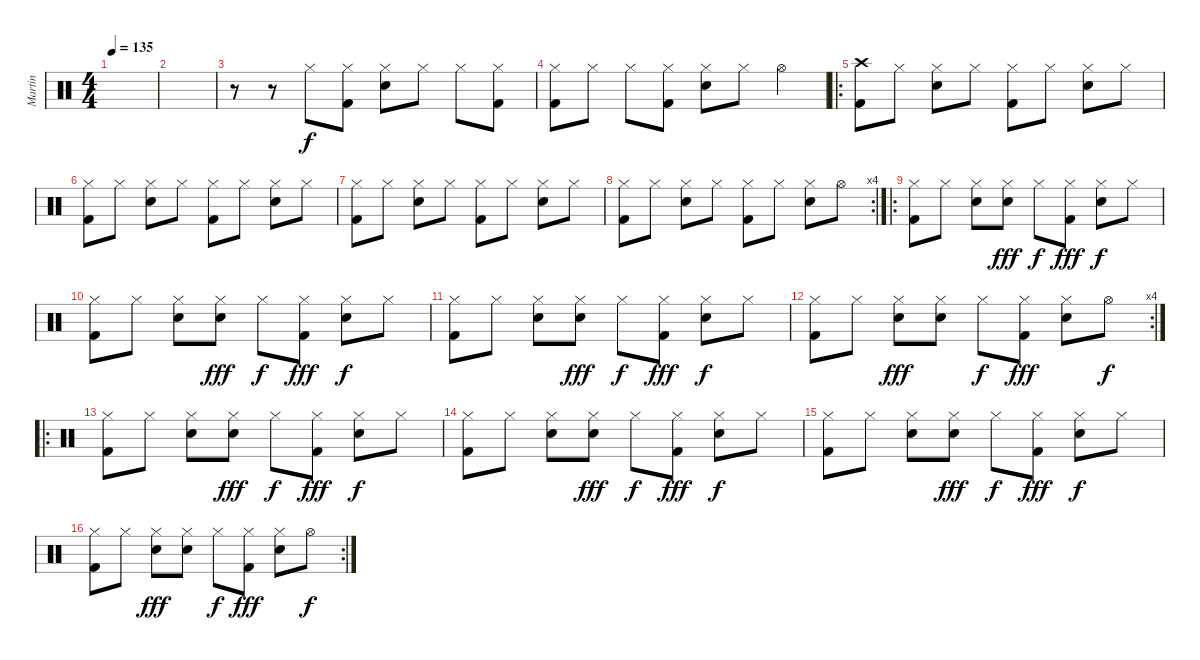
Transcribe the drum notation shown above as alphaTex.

\track ("Martin" "Martin") {instrument percussion}
\staff {score}
\articulation defaults
\ts (4 4)
\tempo 135
\clef neutral
\ks c
|
|
r.8 r.8 "Hi-Hat (closed)".8 ("Hi-Hat (closed)" "Kick (hit) 2").8 ("Hi-Hat (closed)" "Electric Snare (hit)").8 "Hi-Hat (closed)".8 "Hi-Hat (closed)".8 ("Hi-Hat (closed)" "Kick (hit) 2").8 |
("Hi-Hat (closed)" "Kick (hit) 2").8 "Hi-Hat (closed)".8 "Hi-Hat (closed)".8 ("Hi-Hat (closed)" "Kick (hit) 2").8 ("Hi-Hat (closed)" "Electric Snare (hit)").8 "Hi-Hat (closed)".8 "Hi-Hat (open)".4 |
\ro
("Crash high (hit)" "Kick (hit) 2").8 "Hi-Hat (closed)".8 ("Hi-Hat (closed)" "Electric Snare (hit)").8 "Hi-Hat (closed)".8 ("Hi-Hat (closed)" "Kick (hit) 2").8 "Hi-Hat (closed)".8 ("Hi-Hat (closed)" "Electric Snare (hit)").8 "Hi-Hat (closed)".8 |
("Hi-Hat (closed)" "Kick (hit) 2").8 "Hi-Hat (closed)".8 ("Hi-Hat (closed)" "Electric Snare (hit)").8 "Hi-Hat (closed)".8 ("Hi-Hat (closed)" "Kick (hit) 2").8 "Hi-Hat (closed)".8 ("Hi-Hat (closed)" "Electric Snare (hit)").8 "Hi-Hat (closed)".8 |
("Hi-Hat (closed)" "Kick (hit) 2").8 "Hi-Hat (closed)".8 ("Hi-Hat (closed)" "Electric Snare (hit)").8 "Hi-Hat (closed)".8 ("Hi-Hat (closed)" "Kick (hit) 2").8 "Hi-Hat (closed)".8 ("Hi-Hat (closed)" "Electric Snare (hit)").8 "Hi-Hat (closed)".8 |
\rc 4
("Hi-Hat (closed)" "Kick (hit) 2").8 "Hi-Hat (closed)".8 ("Hi-Hat (closed)" "Electric Snare (hit)").8 "Hi-Hat (closed)".8 ("Hi-Hat (closed)" "Kick (hit) 2").8 "Hi-Hat (closed)".8 ("Hi-Hat (closed)" "Electric Snare (hit)").8 "Hi-Hat (open)".8 |
\ro
("Hi-Hat (closed)" "Kick (hit) 2").8 "Hi-Hat (closed)".8 ("Hi-Hat (closed)" "Electric Snare (hit)").8 ("Hi-Hat (closed)" "Electric Snare (hit)").8{dy fff} "Hi-Hat (closed)".8{dy f} ("Hi-Hat (closed)" "Kick (hit) 2").8{dy fff} ("Hi-Hat (closed)" "Electric Snare (hit)").8{dy f} "Hi-Hat (closed)".8 |
("Hi-Hat (closed)" "Kick (hit) 2").8 "Hi-Hat (closed)".8 ("Hi-Hat (closed)" "Electric Snare (hit)").8 ("Hi-Hat (closed)" "Electric Snare (hit)").8{dy fff} "Hi-Hat (closed)".8{dy f} ("Hi-Hat (closed)" "Kick (hit) 2").8{dy fff} ("Hi-Hat (closed)" "Electric Snare (hit)").8{dy f} "Hi-Hat (closed)".8 |
("Hi-Hat (closed)" "Kick (hit) 2").8 "Hi-Hat (closed)".8 ("Hi-Hat (closed)" "Electric Snare (hit)").8 ("Hi-Hat (closed)" "Electric Snare (hit)").8{dy fff} "Hi-Hat (closed)".8{dy f} ("Hi-Hat (closed)" "Kick (hit) 2").8{dy fff} ("Hi-Hat (closed)" "Electric Snare (hit)").8{dy f} "Hi-Hat (closed)".8 |
\rc 4
("Hi-Hat (closed)" "Kick (hit) 2").8 "Hi-Hat (closed)".8 ("Hi-Hat (closed)" "Electric Snare (hit)").8{dy fff} ("Hi-Hat (closed)" "Electric Snare (hit)").8 "Hi-Hat (closed)".8{dy f} ("Hi-Hat (closed)" "Kick (hit) 2").8{dy fff} ("Hi-Hat (closed)" "Electric Snare (hit)").8 "Hi-Hat (open)".8{dy f} |
\ro
("Hi-Hat (closed)" "Kick (hit) 2").8 "Hi-Hat (closed)".8 ("Hi-Hat (closed)" "Electric Snare (hit)").8 ("Hi-Hat (closed)" "Electric Snare (hit)").8{dy fff} "Hi-Hat (closed)".8{dy f} ("Hi-Hat (closed)" "Kick (hit) 2").8{dy fff} ("Hi-Hat (closed)" "Electric Snare (hit)").8{dy f} "Hi-Hat (closed)".8 |
("Hi-Hat (closed)" "Kick (hit) 2").8 "Hi-Hat (closed)".8 ("Hi-Hat (closed)" "Electric Snare (hit)").8 ("Hi-Hat (closed)" "Electric Snare (hit)").8{dy fff} "Hi-Hat (closed)".8{dy f} ("Hi-Hat (closed)" "Kick (hit) 2").8{dy fff} ("Hi-Hat (closed)" "Electric Snare (hit)").8{dy f} "Hi-Hat (closed)".8 |
("Hi-Hat (closed)" "Kick (hit) 2").8 "Hi-Hat (closed)".8 ("Hi-Hat (closed)" "Electric Snare (hit)").8 ("Hi-Hat (closed)" "Electric Snare (hit)").8{dy fff} "Hi-Hat (closed)".8{dy f} ("Hi-Hat (closed)" "Kick (hit) 2").8{dy fff} ("Hi-Hat (closed)" "Electric Snare (hit)").8{dy f} "Hi-Hat (closed)".8 |
\rc 2
("Hi-Hat (closed)" "Kick (hit) 2").8 "Hi-Hat (closed)".8 ("Hi-Hat (closed)" "Electric Snare (hit)").8{dy fff} ("Hi-Hat (closed)" "Electric Snare (hit)").8 "Hi-Hat (closed)".8{dy f} ("Hi-Hat (closed)" "Kick (hit) 2").8{dy fff} ("Hi-Hat (closed)" "Electric Snare (hit)").8 "Hi-Hat (open)".8{dy f}
